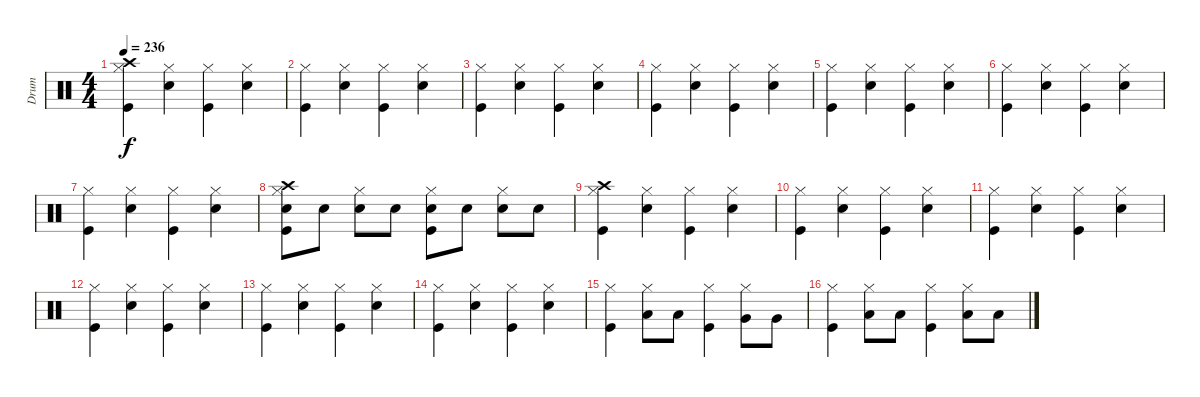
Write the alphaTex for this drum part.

\track ("Drum" "Drum") {instrument percussion}
\staff {score}
\articulation defaults
\ts (4 4)
\tempo 236
\clef neutral
\ks c
("Crash high (hit)" "Hi-Hat (closed)" "Kick (hit)").4{dy f} ("Hi-Hat (closed)" "Snare (hit) 2").4 ("Hi-Hat (closed)" "Kick (hit)").4 ("Hi-Hat (closed)" "Snare (hit) 2").4 |
("Hi-Hat (closed)" "Kick (hit)").4 ("Hi-Hat (closed)" "Snare (hit) 2").4 ("Hi-Hat (closed)" "Kick (hit)").4 ("Hi-Hat (closed)" "Snare (hit) 2").4 |
("Hi-Hat (closed)" "Kick (hit)").4 ("Hi-Hat (closed)" "Snare (hit) 2").4 ("Hi-Hat (closed)" "Kick (hit)").4 ("Hi-Hat (closed)" "Snare (hit) 2").4 |
("Hi-Hat (closed)" "Kick (hit)").4 ("Hi-Hat (closed)" "Snare (hit) 2").4 ("Hi-Hat (closed)" "Kick (hit)").4 ("Hi-Hat (closed)" "Snare (hit) 2").4 |
("Hi-Hat (closed)" "Kick (hit)").4 ("Hi-Hat (closed)" "Snare (hit) 2").4 ("Hi-Hat (closed)" "Kick (hit)").4 ("Hi-Hat (closed)" "Snare (hit) 2").4 |
("Hi-Hat (closed)" "Kick (hit)").4 ("Hi-Hat (closed)" "Snare (hit) 2").4 ("Hi-Hat (closed)" "Kick (hit)").4 ("Hi-Hat (closed)" "Snare (hit) 2").4 |
("Hi-Hat (closed)" "Kick (hit)").4 ("Hi-Hat (closed)" "Snare (hit) 2").4 ("Hi-Hat (closed)" "Kick (hit)").4 ("Hi-Hat (closed)" "Snare (hit) 2").4 |
("Crash high (hit)" "Hi-Hat (closed)" "Snare (hit) 2" "Kick (hit)").8 "Snare (hit) 2".8 ("Hi-Hat (closed)" "Snare (hit) 2").8 "Snare (hit) 2".8 ("Hi-Hat (closed)" "Snare (hit) 2" "Kick (hit)").8 "Snare (hit) 2".8 ("Hi-Hat (closed)" "Snare (hit) 2").8 "Snare (hit) 2".8 |
("Crash high (hit)" "Hi-Hat (closed)" "Kick (hit)").4 ("Hi-Hat (closed)" "Snare (hit) 2").4 ("Hi-Hat (closed)" "Kick (hit)").4 ("Hi-Hat (closed)" "Snare (hit) 2").4 |
("Hi-Hat (closed)" "Kick (hit)").4 ("Hi-Hat (closed)" "Snare (hit) 2").4 ("Hi-Hat (closed)" "Kick (hit)").4 ("Hi-Hat (closed)" "Snare (hit) 2").4 |
("Hi-Hat (closed)" "Kick (hit)").4 ("Hi-Hat (closed)" "Snare (hit) 2").4 ("Hi-Hat (closed)" "Kick (hit)").4 ("Hi-Hat (closed)" "Snare (hit) 2").4 |
("Hi-Hat (closed)" "Kick (hit)").4 ("Hi-Hat (closed)" "Snare (hit) 2").4 ("Hi-Hat (closed)" "Kick (hit)").4 ("Hi-Hat (closed)" "Snare (hit) 2").4 |
("Hi-Hat (closed)" "Kick (hit)").4 ("Hi-Hat (closed)" "Snare (hit) 2").4 ("Hi-Hat (closed)" "Kick (hit)").4 ("Hi-Hat (closed)" "Snare (hit) 2").4 |
("Hi-Hat (closed)" "Kick (hit)").4 ("Hi-Hat (closed)" "Snare (hit) 2").4 ("Hi-Hat (closed)" "Kick (hit)").4 ("Hi-Hat (closed)" "Snare (hit) 2").4 |
("Hi-Hat (closed)" "Kick (hit)").4 ("Hi-Hat (closed)" "Low Tom (hit)").8 "Low Tom (hit)".8 ("Hi-Hat (closed)" "Kick (hit)").4 ("Hi-Hat (closed)" "Very Low Tom (hit)").8 "Very Low Tom (hit)".8 |
("Hi-Hat (closed)" "Kick (hit)").4 ("Hi-Hat (closed)" "Low Floor Tom (hit)").8 "Low Floor Tom (hit)".8 ("Hi-Hat (closed)" "Kick (hit)").4 ("Hi-Hat (closed)" "Low Floor Tom (hit)").8 "Low Floor Tom (hit)".8
